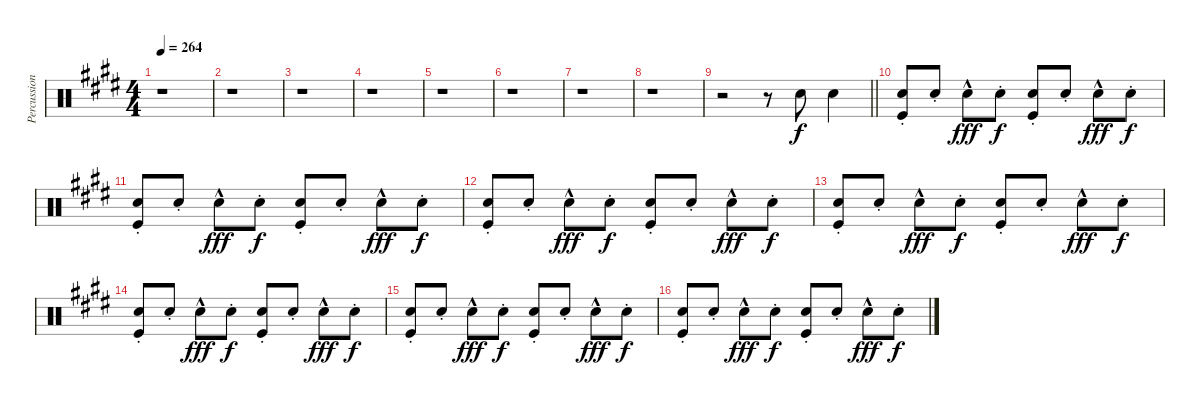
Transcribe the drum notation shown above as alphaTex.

\track ("Percussion" "Percussion") {instrument percussion}
\staff {score}
\articulation defaults
\ts (4 4)
\tempo 264
\clef neutral
\ks e
r.1{dy f} |
r.1 |
r.1 |
r.1 |
r.1 |
r.1 |
r.1 |
r.1 |
\barLineRight lightlight
r.2 r.8 "Snare (hit) 2".8 "Snare (hit) 2".4 |
("Snare (hit) 2"{st} "Kick (hit)").8 "Snare (hit) 2"{st}.8 "Snare (hit) 2"{hac}.8{dy fff} "Snare (hit) 2"{st}.8{dy f} ("Snare (hit) 2"{st} "Kick (hit)").8 "Snare (hit) 2"{st}.8 "Snare (hit) 2"{hac}.8{dy fff} "Snare (hit) 2"{st}.8{dy f} |
("Snare (hit) 2"{st} "Kick (hit)").8 "Snare (hit) 2"{st}.8 "Snare (hit) 2"{hac}.8{dy fff} "Snare (hit) 2"{st}.8{dy f} ("Snare (hit) 2"{st} "Kick (hit)").8 "Snare (hit) 2"{st}.8 "Snare (hit) 2"{hac}.8{dy fff} "Snare (hit) 2"{st}.8{dy f} |
("Snare (hit) 2"{st} "Kick (hit)").8 "Snare (hit) 2"{st}.8 "Snare (hit) 2"{hac}.8{dy fff} "Snare (hit) 2"{st}.8{dy f} ("Snare (hit) 2"{st} "Kick (hit)").8 "Snare (hit) 2"{st}.8 "Snare (hit) 2"{hac}.8{dy fff} "Snare (hit) 2"{st}.8{dy f} |
("Snare (hit) 2"{st} "Kick (hit)").8 "Snare (hit) 2"{st}.8 "Snare (hit) 2"{hac}.8{dy fff} "Snare (hit) 2"{st}.8{dy f} ("Snare (hit) 2"{st} "Kick (hit)").8 "Snare (hit) 2"{st}.8 "Snare (hit) 2"{hac}.8{dy fff} "Snare (hit) 2"{st}.8{dy f} |
("Snare (hit) 2"{st} "Kick (hit)").8 "Snare (hit) 2"{st}.8 "Snare (hit) 2"{hac}.8{dy fff} "Snare (hit) 2"{st}.8{dy f} ("Snare (hit) 2"{st} "Kick (hit)").8 "Snare (hit) 2"{st}.8 "Snare (hit) 2"{hac}.8{dy fff} "Snare (hit) 2"{st}.8{dy f} |
("Snare (hit) 2"{st} "Kick (hit)").8 "Snare (hit) 2"{st}.8 "Snare (hit) 2"{hac}.8{dy fff} "Snare (hit) 2"{st}.8{dy f} ("Snare (hit) 2"{st} "Kick (hit)").8 "Snare (hit) 2"{st}.8 "Snare (hit) 2"{hac}.8{dy fff} "Snare (hit) 2"{st}.8{dy f} |
("Snare (hit) 2"{st} "Kick (hit)").8 "Snare (hit) 2"{st}.8 "Snare (hit) 2"{hac}.8{dy fff} "Snare (hit) 2"{st}.8{dy f} ("Snare (hit) 2"{st} "Kick (hit)").8 "Snare (hit) 2"{st}.8 "Snare (hit) 2"{hac}.8{dy fff} "Snare (hit) 2"{st}.8{dy f}
